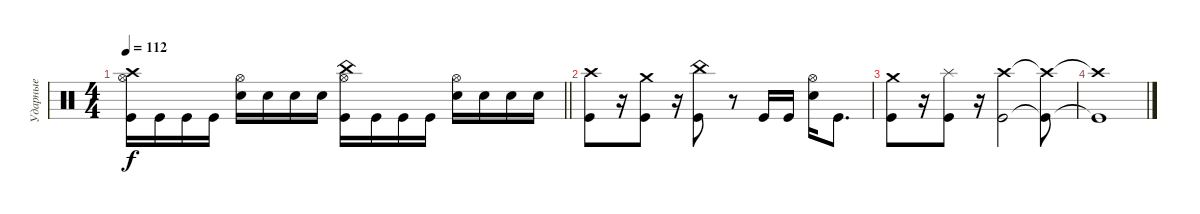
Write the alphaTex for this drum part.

\track ("Ударные" "Ударные") {instrument percussion}
\staff {score}
\articulation defaults
\ts (4 4)
\tempo 112
\clef neutral
\barLineRight lightlight
\ks aminor
("Kick (hit)" "Crash high (hit)" "Hi-Hat (open)").16{dy f} "Kick (hit)".16 "Kick (hit)".16 "Kick (hit)".16 ("Electric Snare (hit)" "Hi-Hat (open)").16 "Electric Snare (hit)".16 "Electric Snare (hit)".16 "Electric Snare (hit)".16 ("Kick (hit)" "China (hit)" "Hi-Hat (open)").16 "Kick (hit)".16 "Kick (hit)".16 "Kick (hit)".16 ("Electric Snare (hit)" "Hi-Hat (open)").16 "Electric Snare (hit)".16 "Electric Snare (hit)".16 "Electric Snare (hit)".16 |
("Crash high (hit)" "Kick (hit)").8 r.16 ("Kick (hit)" "Crash medium (hit)").8 r.16 ("Kick (hit)" "China (hit)").8 r.8 "Kick (hit)".16 "Kick (hit)".16 ("Electric Snare (hit)" "Hi-Hat (open)").16 "Kick (hit)".8{d} |
("Crash medium (hit)" "Kick (hit)").8 r.16 ("Kick (hit)" "Splash (hit)").8 r.16 ("Kick (hit)" "Crash high (hit)").2 ("Kick (hit)"{t} "Crash high (hit)"{t}).8 |
("Kick (hit)"{t} "Crash high (hit)"{t}).1
